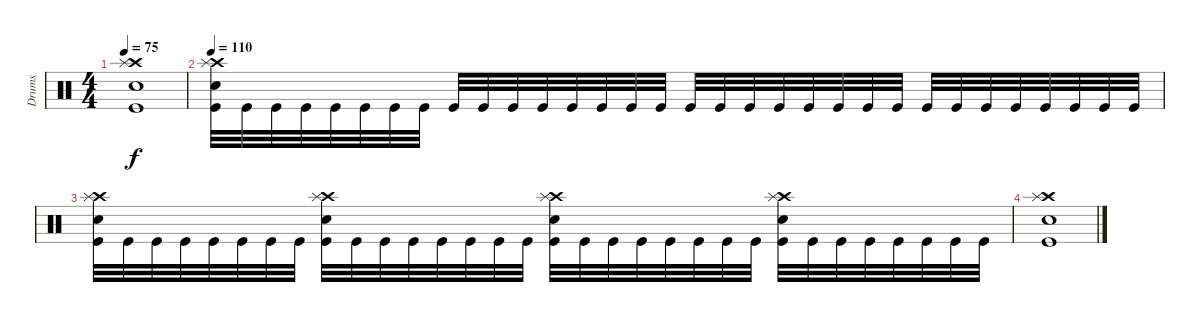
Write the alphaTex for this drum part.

\track ("Drums" "Drums") {instrument percussion}
\staff {score}
\articulation defaults
\ts (4 4)
\tempo 75
\clef neutral
\ks c
("Crash high (hit)" "Splash (hit)" "Snare (hit) 2" "Kick (hit)").1{dy f} |
\tempo 110
("Crash high (hit)" "Splash (hit)" "Snare (hit) 2" "Kick (hit)").32 "Kick (hit)".32 "Kick (hit)".32 "Kick (hit)".32 "Kick (hit)".32 "Kick (hit)".32 "Kick (hit)".32 "Kick (hit)".32 "Kick (hit)".32 "Kick (hit)".32 "Kick (hit)".32 "Kick (hit)".32 "Kick (hit)".32 "Kick (hit)".32 "Kick (hit)".32 "Kick (hit)".32 "Kick (hit)".32 "Kick (hit)".32 "Kick (hit)".32 "Kick (hit)".32 "Kick (hit)".32 "Kick (hit)".32 "Kick (hit)".32 "Kick (hit)".32 "Kick (hit)".32 "Kick (hit)".32 "Kick (hit)".32 "Kick (hit)".32 "Kick (hit)".32 "Kick (hit)".32 "Kick (hit)".32 "Kick (hit)".32 |
("Crash high (hit)" "Splash (hit)" "Snare (hit) 2" "Kick (hit)").32 "Kick (hit)".32 "Kick (hit)".32 "Kick (hit)".32 "Kick (hit)".32 "Kick (hit)".32 "Kick (hit)".32 "Kick (hit)".32 ("Crash high (hit)" "Splash (hit)" "Kick (hit)" "Snare (hit) 2").32 "Kick (hit)".32 "Kick (hit)".32 "Kick (hit)".32 "Kick (hit)".32 "Kick (hit)".32 "Kick (hit)".32 "Kick (hit)".32 ("Crash high (hit)" "Splash (hit)" "Kick (hit)" "Snare (hit) 2").32 "Kick (hit)".32 "Kick (hit)".32 "Kick (hit)".32 "Kick (hit)".32 "Kick (hit)".32 "Kick (hit)".32 "Kick (hit)".32 ("Crash high (hit)" "Splash (hit)" "Kick (hit)" "Snare (hit) 2").32 "Kick (hit)".32 "Kick (hit)".32 "Kick (hit)".32 "Kick (hit)".32 "Kick (hit)".32 "Kick (hit)".32 "Kick (hit)".32 |
("Crash high (hit)" "Splash (hit)" "Snare (hit) 2" "Kick (hit)").1
